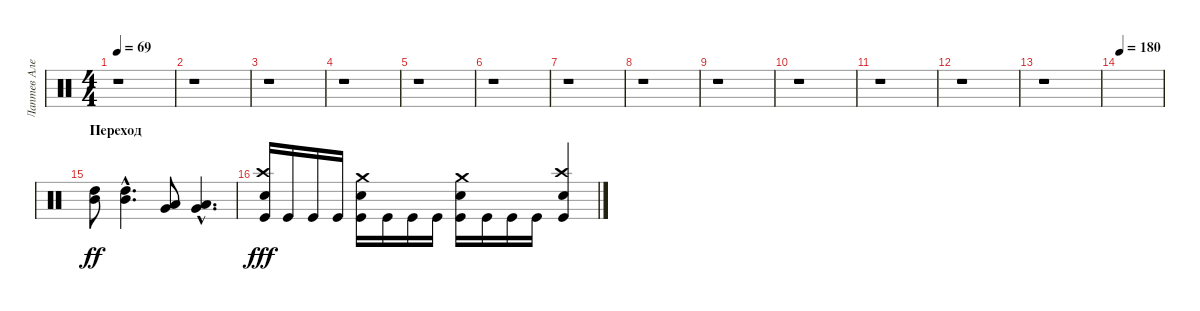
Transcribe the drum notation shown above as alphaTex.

\track ("Лаптев Алексей" "Лаптев Але") {instrument percussion}
\staff {score}
\articulation defaults
\ts (4 4)
\tempo 69
\clef neutral
\ks c
r.1{dy f} |
r.1 |
r.1 |
r.1 |
r.1 |
r.1 |
r.1 |
r.1 |
r.1 |
r.1 |
r.1 |
r.1 |
r.1 |
\tempo 180
|
\section ("" "Переход")
("Mid Tom (hit)" "High Tom (hit)").8{dy ff} ("Mid Tom (hit)"{hac} "High Tom (hit)"{hac}).4{d} ("Very Low Tom (hit)" "Low Tom (hit)").8 ("Very Low Tom (hit)"{hac} "Low Tom (hit)"{hac}).4{d} |
("Electric Snare (hit)" "Crash high (hit)" "Kick (hit)").16{dy fff} "Kick (hit)".16 "Kick (hit)".16 "Kick (hit)".16 ("Electric Snare (hit)" "Crash medium (hit)" "Kick (hit)").16 "Kick (hit)".16 "Kick (hit)".16 "Kick (hit)".16 ("Electric Snare (hit)" "Crash medium (hit)" "Kick (hit)").16 "Kick (hit)".16 "Kick (hit)".16 "Kick (hit)".16 ("Electric Snare (hit)" "Crash high (hit)" "Kick (hit)").4
